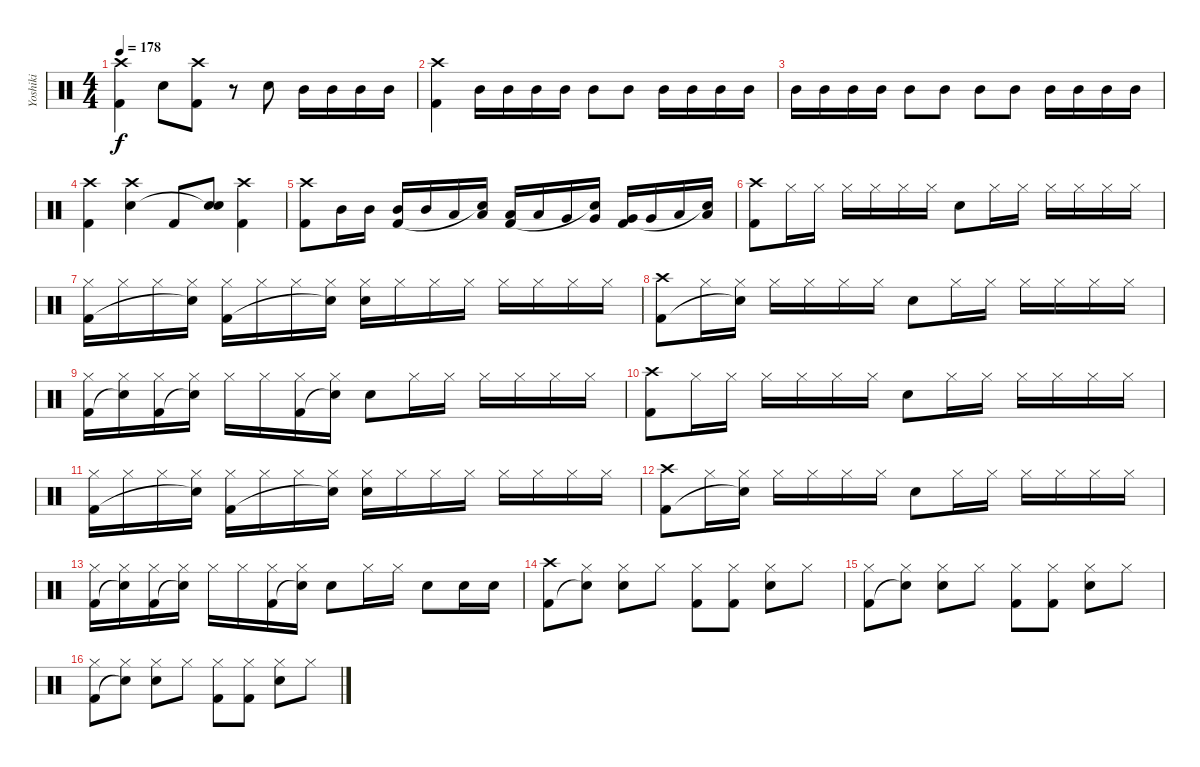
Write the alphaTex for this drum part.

\track ("Yoshiki" "Yoshiki") {instrument percussion}
\staff {score}
\articulation defaults
\ts (4 4)
\tempo 178
\clef neutral
\ks c
("Crash high (hit)" "Kick (hit) 2").4{dy f} "Snare (hit) 2".8 ("Crash high (hit)" "Kick (hit) 2").8 r.8 "Snare (hit) 2".8 "Mid Tom (hit)".16 "Mid Tom (hit)".16 "Mid Tom (hit)".16 "Mid Tom (hit)".16 |
("Crash high (hit)" "Kick (hit) 2").4 "Mid Tom (hit)".16 "Mid Tom (hit)".16 "Mid Tom (hit)".16 "Mid Tom (hit)".16 "Mid Tom (hit)".8 "Mid Tom (hit)".8 "Mid Tom (hit)".16 "Mid Tom (hit)".16 "Mid Tom (hit)".16 "Mid Tom (hit)".16 |
"Mid Tom (hit)".16 "Mid Tom (hit)".16 "Mid Tom (hit)".16 "Mid Tom (hit)".16 "Mid Tom (hit)".8 "Mid Tom (hit)".8 "Mid Tom (hit)".8 "Mid Tom (hit)".8 "Mid Tom (hit)".16 "Mid Tom (hit)".16 "Mid Tom (hit)".16 "Mid Tom (hit)".16 |
("Crash high (hit)" "Kick (hit) 2").4 ("Crash high (hit)" "Snare (hit) 2").4 "Kick (hit) 2".8 ("Snare (hit) 2" "Snare (hit)"{t}).8 ("Crash high (hit)" "Kick (hit) 2").4 |
("Crash high (hit)" "Kick (hit) 2").8 "Mid Tom (hit)".16 "Mid Tom (hit)".16 ("Mid Tom (hit)" "Kick (hit) 2").16 "Mid Tom (hit)".16 "Low Tom (hit)".16 ("Low Tom (hit)" "Snare (hit)"{t}).16 ("Low Tom (hit)" "Kick (hit) 2").16 "Low Tom (hit)".16 "Very Low Tom (hit)".16 ("Very Low Tom (hit)" "Snare (hit)"{t}).16 ("Very Low Tom (hit)" "Kick (hit) 2").16 "Very Low Tom (hit)".16 "Low Floor Tom (hit)".16 ("Low Floor Tom (hit)" "Snare (hit)"{t}).16 |
("Crash high (hit)" "Kick (hit) 2").8 "Hi-Hat (closed)".16 "Hi-Hat (closed)".16 "Hi-Hat (closed)".16 "Hi-Hat (closed)".16 "Hi-Hat (closed)".16 "Hi-Hat (closed)".16 "Snare (hit) 2".8 "Hi-Hat (closed)".16 "Hi-Hat (closed)".16 "Hi-Hat (closed)".16 "Hi-Hat (closed)".16 "Hi-Hat (closed)".16 "Hi-Hat (closed)".16 |
("Hi-Hat (closed)" "Kick (hit) 2").16 "Hi-Hat (closed)".16 "Hi-Hat (closed)".16 ("Hi-Hat (closed)" "Snare (hit)"{t}).16 ("Hi-Hat (closed)" "Kick (hit) 2").16 "Hi-Hat (closed)".16 "Hi-Hat (closed)".16 ("Hi-Hat (closed)" "Snare (hit)"{t}).16 ("Hi-Hat (closed)" "Snare (hit) 2").16 "Hi-Hat (closed)".16 "Hi-Hat (closed)".16 "Hi-Hat (closed)".16 "Hi-Hat (closed)".16 "Hi-Hat (closed)".16 "Hi-Hat (closed)".16 "Hi-Hat (closed)".16 |
("Crash high (hit)" "Kick (hit) 2").8 "Hi-Hat (closed)".16 ("Hi-Hat (closed)" "Snare (hit)"{t}).16 "Hi-Hat (closed)".16 "Hi-Hat (closed)".16 "Hi-Hat (closed)".16 "Hi-Hat (closed)".16 "Snare (hit) 2".8 "Hi-Hat (closed)".16 "Hi-Hat (closed)".16 "Hi-Hat (closed)".16 "Hi-Hat (closed)".16 "Hi-Hat (closed)".16 "Hi-Hat (closed)".16 |
("Hi-Hat (closed)" "Kick (hit) 2").16 ("Hi-Hat (closed)" "Snare (hit)"{t}).16 ("Hi-Hat (closed)" "Kick (hit) 2").16 ("Hi-Hat (closed)" "Snare (hit)"{t}).16 "Hi-Hat (closed)".16 "Hi-Hat (closed)".16 ("Hi-Hat (closed)" "Kick (hit) 2").16 ("Hi-Hat (closed)" "Snare (hit)"{t}).16 "Snare (hit) 2".8 "Hi-Hat (closed)".16 "Hi-Hat (closed)".16 "Hi-Hat (closed)".16 "Hi-Hat (closed)".16 "Hi-Hat (closed)".16 "Hi-Hat (closed)".16 |
("Crash high (hit)" "Kick (hit) 2").8 "Hi-Hat (closed)".16 "Hi-Hat (closed)".16 "Hi-Hat (closed)".16 "Hi-Hat (closed)".16 "Hi-Hat (closed)".16 "Hi-Hat (closed)".16 "Snare (hit) 2".8 "Hi-Hat (closed)".16 "Hi-Hat (closed)".16 "Hi-Hat (closed)".16 "Hi-Hat (closed)".16 "Hi-Hat (closed)".16 "Hi-Hat (closed)".16 |
("Hi-Hat (closed)" "Kick (hit) 2").16 "Hi-Hat (closed)".16 "Hi-Hat (closed)".16 ("Hi-Hat (closed)" "Snare (hit)"{t}).16 ("Hi-Hat (closed)" "Kick (hit) 2").16 "Hi-Hat (closed)".16 "Hi-Hat (closed)".16 ("Hi-Hat (closed)" "Snare (hit)"{t}).16 ("Hi-Hat (closed)" "Snare (hit) 2").16 "Hi-Hat (closed)".16 "Hi-Hat (closed)".16 "Hi-Hat (closed)".16 "Hi-Hat (closed)".16 "Hi-Hat (closed)".16 "Hi-Hat (closed)".16 "Hi-Hat (closed)".16 |
("Crash high (hit)" "Kick (hit) 2").8 "Hi-Hat (closed)".16 ("Hi-Hat (closed)" "Snare (hit)"{t}).16 "Hi-Hat (closed)".16 "Hi-Hat (closed)".16 "Hi-Hat (closed)".16 "Hi-Hat (closed)".16 "Snare (hit) 2".8 "Hi-Hat (closed)".16 "Hi-Hat (closed)".16 "Hi-Hat (closed)".16 "Hi-Hat (closed)".16 "Hi-Hat (closed)".16 "Hi-Hat (closed)".16 |
("Hi-Hat (closed)" "Kick (hit) 2").16 ("Hi-Hat (closed)" "Snare (hit)"{t}).16 ("Hi-Hat (closed)" "Kick (hit) 2").16 ("Hi-Hat (closed)" "Snare (hit)"{t}).16 "Hi-Hat (closed)".16 "Hi-Hat (closed)".16 ("Hi-Hat (closed)" "Kick (hit) 2").16 ("Hi-Hat (closed)" "Snare (hit)"{t}).16 "Snare (hit) 2".8 "Hi-Hat (closed)".16 "Hi-Hat (closed)".16 "Snare (hit) 2".8 "Snare (hit) 2".16 "Snare (hit) 2".16 |
("Crash high (hit)" "Kick (hit) 2").8 ("Hi-Hat (closed)" "Snare (hit)"{t}).8 ("Hi-Hat (closed)" "Snare (hit) 2").8 "Hi-Hat (closed)".8 ("Hi-Hat (closed)" "Kick (hit) 2").8 ("Hi-Hat (closed)" "Kick (hit) 2").8 ("Hi-Hat (closed)" "Snare (hit) 2").8 "Hi-Hat (closed)".8 |
("Hi-Hat (closed)" "Kick (hit) 2").8 ("Hi-Hat (closed)" "Snare (hit)"{t}).8 ("Hi-Hat (closed)" "Snare (hit) 2").8 "Hi-Hat (closed)".8 ("Hi-Hat (closed)" "Kick (hit) 2").8 ("Hi-Hat (closed)" "Kick (hit) 2").8 ("Hi-Hat (closed)" "Snare (hit) 2").8 "Hi-Hat (closed)".8 |
("Hi-Hat (closed)" "Kick (hit) 2").8 ("Hi-Hat (closed)" "Snare (hit)"{t}).8 ("Hi-Hat (closed)" "Snare (hit) 2").8 "Hi-Hat (closed)".8 ("Hi-Hat (closed)" "Kick (hit) 2").8 ("Hi-Hat (closed)" "Kick (hit) 2").8 ("Hi-Hat (closed)" "Snare (hit) 2").8 "Hi-Hat (closed)".8
